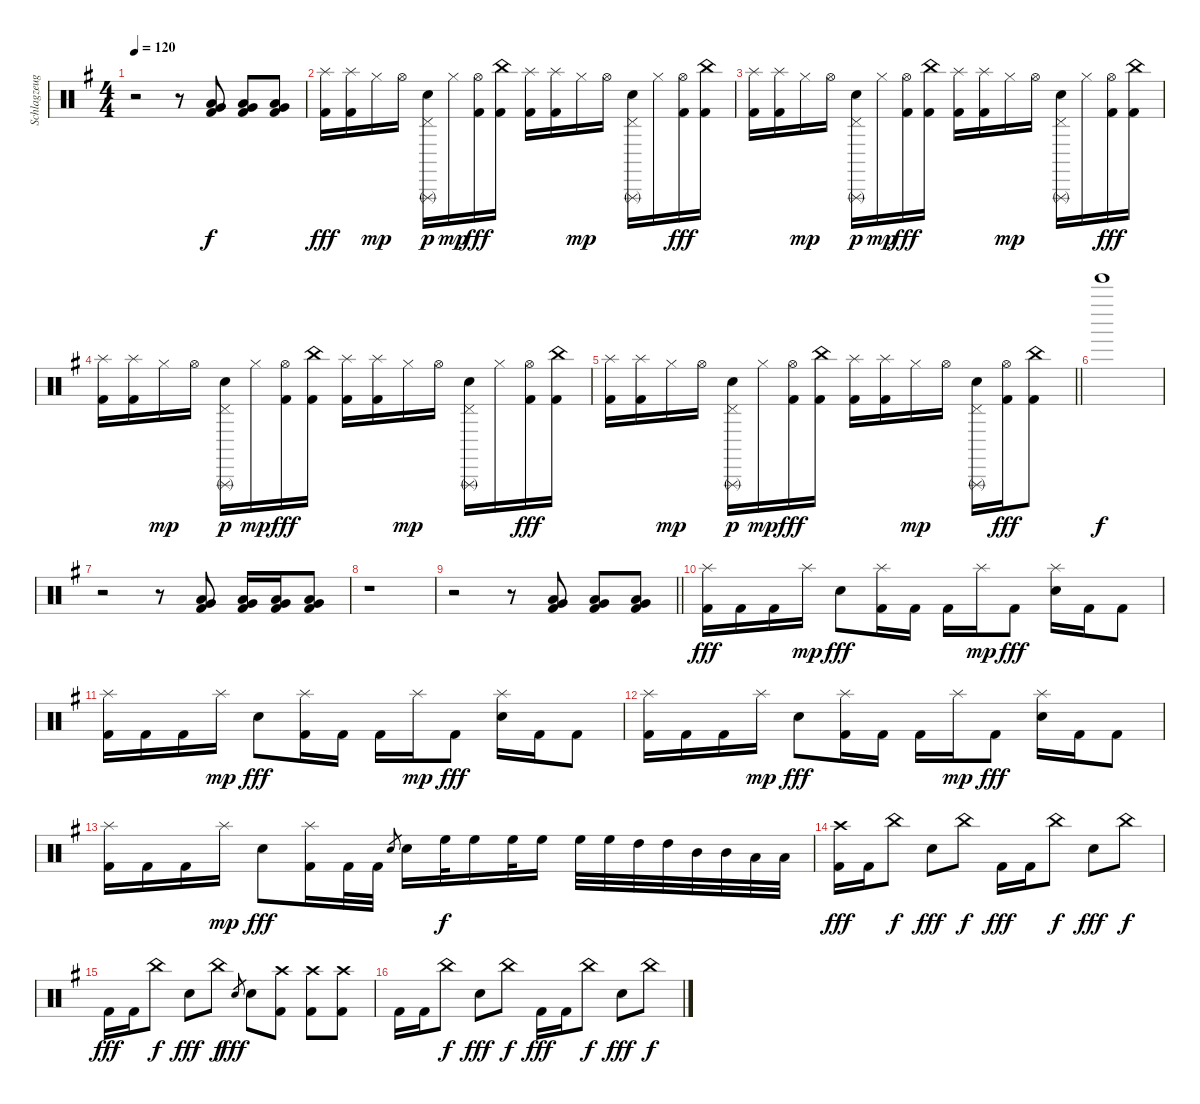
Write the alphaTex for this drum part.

\track ("Schlagzeug" "Schlagzeug") {instrument percussion}
\staff {score}
\articulation defaults
\ts (4 4)
\tempo 120
\clef neutral
\ks eminor
r.2{dy f} r.8 ("Low Tom (hit)" "Very Low Tom (hit)" "Kick (hit) 2").8 ("Low Tom (hit)" "Very Low Tom (hit)" "Kick (hit) 2").8 ("Low Tom (hit)" "Very Low Tom (hit)" "Kick (hit) 2").8 |
("Splash (hit)" "Kick (hit) 2").16{dy fff} ("Splash (hit)" "Kick (hit) 2").16 "Hi-Hat (closed)".16{dy mp} "Hi-Hat (open)".16 ("Pedal Hi-Hat (hit)" "Triangle (rnute)" "Electric Snare (hit)").16{dy p} "Hi-Hat (closed)".16{dy mp} ("Hi-Hat (open)" "Kick (hit) 2").16{dy fff} ("China (hit)" "Kick (hit) 2").16 ("Splash (hit)" "Kick (hit) 2").16 ("Splash (hit)" "Kick (hit) 2").16 "Hi-Hat (closed)".16{dy mp} "Hi-Hat (open)".16 ("Pedal Hi-Hat (hit)" "Triangle (rnute)" "Electric Snare (hit)").16 "Hi-Hat (closed)".16 ("Hi-Hat (open)" "Kick (hit) 2").16{dy fff} ("China (hit)" "Kick (hit) 2").16 |
("Splash (hit)" "Kick (hit) 2").16 ("Splash (hit)" "Kick (hit) 2").16 "Hi-Hat (closed)".16{dy mp} "Hi-Hat (open)".16 ("Pedal Hi-Hat (hit)" "Triangle (rnute)" "Electric Snare (hit)").16{dy p} "Hi-Hat (closed)".16{dy mp} ("Hi-Hat (open)" "Kick (hit) 2").16{dy fff} ("China (hit)" "Kick (hit) 2").16 ("Splash (hit)" "Kick (hit) 2").16 ("Splash (hit)" "Kick (hit) 2").16 "Hi-Hat (closed)".16{dy mp} "Hi-Hat (open)".16 ("Pedal Hi-Hat (hit)" "Triangle (rnute)" "Electric Snare (hit)").16 "Hi-Hat (closed)".16 ("Hi-Hat (open)" "Kick (hit) 2").16{dy fff} ("China (hit)" "Kick (hit) 2").16 |
("Splash (hit)" "Kick (hit) 2").16 ("Splash (hit)" "Kick (hit) 2").16 "Hi-Hat (closed)".16{dy mp} "Hi-Hat (open)".16 ("Pedal Hi-Hat (hit)" "Triangle (rnute)" "Electric Snare (hit)").16{dy p} "Hi-Hat (closed)".16{dy mp} ("Hi-Hat (open)" "Kick (hit) 2").16{dy fff} ("China (hit)" "Kick (hit) 2").16 ("Splash (hit)" "Kick (hit) 2").16 ("Splash (hit)" "Kick (hit) 2").16 "Hi-Hat (closed)".16{dy mp} "Hi-Hat (open)".16 ("Pedal Hi-Hat (hit)" "Triangle (rnute)" "Electric Snare (hit)").16 "Hi-Hat (closed)".16 ("Hi-Hat (open)" "Kick (hit) 2").16{dy fff} ("China (hit)" "Kick (hit) 2").16 |
\barLineRight lightlight
("Splash (hit)" "Kick (hit) 2").16 ("Splash (hit)" "Kick (hit) 2").16 "Hi-Hat (closed)".16{dy mp} "Hi-Hat (open)".16 ("Pedal Hi-Hat (hit)" "Triangle (rnute)" "Electric Snare (hit)").16{dy p} "Hi-Hat (closed)".16{dy mp} ("Hi-Hat (open)" "Kick (hit) 2").16{dy fff} ("China (hit)" "Kick (hit) 2").16 ("Splash (hit)" "Kick (hit) 2").16 ("Splash (hit)" "Kick (hit) 2").16 "Hi-Hat (closed)".16{dy mp} "Hi-Hat (open)".16 ("Pedal Hi-Hat (hit)" "Triangle (rnute)" "Electric Snare (hit)").16 ("Hi-Hat (open)" "Kick (hit) 2").16{dy fff} ("China (hit)" "Kick (hit) 2").8 |
"Tinkle Bell (hit)".1{dy f} |
r.2 r.8 ("Low Tom (hit)" "Very Low Tom (hit)" "Kick (hit) 2").8 ("Low Tom (hit)" "Very Low Tom (hit)" "Kick (hit) 2").16 ("Low Tom (hit)" "Very Low Tom (hit)" "Kick (hit) 2").16 ("Low Tom (hit)" "Very Low Tom (hit)" "Kick (hit) 2").8 |
r.1 |
\barLineRight lightlight
r.2 r.8 ("Low Tom (hit)" "Very Low Tom (hit)" "Kick (hit) 2").8 ("Low Tom (hit)" "Very Low Tom (hit)" "Kick (hit) 2").8 ("Low Tom (hit)" "Very Low Tom (hit)" "Kick (hit) 2").8 |
("Splash (hit)" "Kick (hit) 2").16{dy fff} "Kick (hit) 2".16 "Kick (hit) 2".16 "Splash (hit)".16{dy mp} "Snare (hit) 2".8{dy fff} ("Splash (hit)" "Kick (hit) 2").16 "Kick (hit) 2".16 "Kick (hit) 2".16 "Splash (hit)".16{dy mp} "Kick (hit) 2".8{dy fff} ("Splash (hit)" "Snare (hit) 2").16 "Kick (hit) 2".16 "Kick (hit) 2".8 |
("Splash (hit)" "Kick (hit) 2").16 "Kick (hit) 2".16 "Kick (hit) 2".16 "Splash (hit)".16{dy mp} "Snare (hit) 2".8{dy fff} ("Splash (hit)" "Kick (hit) 2").16 "Kick (hit) 2".16 "Kick (hit) 2".16 "Splash (hit)".16{dy mp} "Kick (hit) 2".8{dy fff} ("Splash (hit)" "Snare (hit) 2").16 "Kick (hit) 2".16 "Kick (hit) 2".8 |
("Splash (hit)" "Kick (hit) 2").16 "Kick (hit) 2".16 "Kick (hit) 2".16 "Splash (hit)".16{dy mp} "Snare (hit) 2".8{dy fff} ("Splash (hit)" "Kick (hit) 2").16 "Kick (hit) 2".16 "Kick (hit) 2".16 "Splash (hit)".16{dy mp} "Kick (hit) 2".8{dy fff} ("Splash (hit)" "Snare (hit) 2").16 "Kick (hit) 2".16 "Kick (hit) 2".8 |
("Splash (hit)" "Kick (hit) 2").16 "Kick (hit) 2".16 "Kick (hit) 2".16 "Splash (hit)".16{dy mp} "Snare (hit) 2".8{dy fff} ("Splash (hit)" "Kick (hit) 2").16 "Kick (hit) 2".32 "Kick (hit) 2".32 "Snare (hit) 2".8{gr} "Snare (hit) 2".16 "High Floor Tom (hit)".32{dy f} "High Floor Tom (hit)".16 "High Floor Tom (hit)".32 "High Floor Tom (hit)".16 "High Floor Tom (hit)".32 "High Floor Tom (hit)".32 "High Tom (hit)".32 "High Tom (hit)".32 "Mid Tom (hit)".32 "Mid Tom (hit)".32 "Low Tom (hit)".32 "Low Tom (hit)".32 |
("Crash high (hit)" "Kick (hit) 2").16{dy fff} "Kick (hit) 2".16 "China (hit)".8{dy f} "Snare (hit) 2".8{dy fff} "China (hit)".8{dy f} "Kick (hit) 2".16{dy fff} "Kick (hit) 2".16 "China (hit)".8{dy f} "Snare (hit) 2".8{dy fff} "China (hit)".8{dy f} |
"Kick (hit) 2".16{dy fff} "Kick (hit) 2".16 "China (hit)".8{dy f} "Snare (hit) 2".8{dy fff} "China (hit)".8{dy f} "Snare (hit) 2".8{gr dy fff} "Snare (hit) 2".8 ("Crash high (hit)" "Kick (hit) 2").8 ("Crash high (hit)" "Kick (hit) 2").8 ("Crash high (hit)" "Kick (hit) 2").8 |
"Kick (hit) 2".16 "Kick (hit) 2".16 "China (hit)".8{dy f} "Snare (hit) 2".8{dy fff} "China (hit)".8{dy f} "Kick (hit) 2".16{dy fff} "Kick (hit) 2".16 "China (hit)".8{dy f} "Snare (hit) 2".8{dy fff} "China (hit)".8{dy f}
